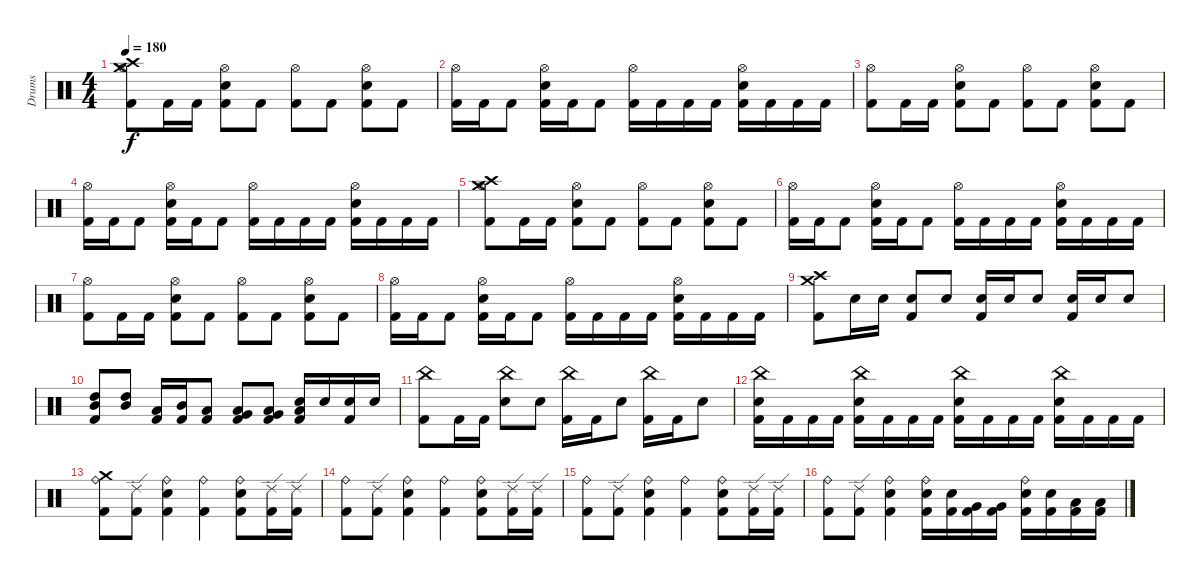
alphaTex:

\track ("Drums" "Drums") {instrument percussion}
\staff {score}
\articulation defaults
\ts (4 4)
\tempo 180
\clef neutral
\ks c
("Hi-Hat (open)" "Crash medium (hit)" "Crash high (hit)" "Kick (hit) 2").8{dy f} "Kick (hit) 2".16 "Kick (hit) 2".16 ("Hi-Hat (open)" "Snare (hit) 2" "Kick (hit) 2").8 "Kick (hit) 2".8 ("Hi-Hat (open)" "Kick (hit) 2").8 "Kick (hit) 2".8 ("Hi-Hat (open)" "Snare (hit) 2" "Kick (hit) 2").8 "Kick (hit) 2".8 |
("Hi-Hat (open)" "Kick (hit) 2").16 "Kick (hit) 2".16 "Kick (hit) 2".8 ("Hi-Hat (open)" "Snare (hit) 2" "Kick (hit) 2").16 "Kick (hit) 2".16 "Kick (hit) 2".8 ("Hi-Hat (open)" "Kick (hit) 2").16 "Kick (hit) 2".16 "Kick (hit) 2".16 "Kick (hit) 2".16 ("Hi-Hat (open)" "Snare (hit) 2" "Kick (hit) 2").16 "Kick (hit) 2".16 "Kick (hit) 2".16 "Kick (hit) 2".16 |
("Hi-Hat (open)" "Kick (hit) 2").8 "Kick (hit) 2".16 "Kick (hit) 2".16 ("Hi-Hat (open)" "Snare (hit) 2" "Kick (hit) 2").8 "Kick (hit) 2".8 ("Hi-Hat (open)" "Kick (hit) 2").8 "Kick (hit) 2".8 ("Hi-Hat (open)" "Snare (hit) 2" "Kick (hit) 2").8 "Kick (hit) 2".8 |
("Hi-Hat (open)" "Kick (hit) 2").16 "Kick (hit) 2".16 "Kick (hit) 2".8 ("Hi-Hat (open)" "Snare (hit) 2" "Kick (hit) 2").16 "Kick (hit) 2".16 "Kick (hit) 2".8 ("Hi-Hat (open)" "Kick (hit) 2").16 "Kick (hit) 2".16 "Kick (hit) 2".16 "Kick (hit) 2".16 ("Hi-Hat (open)" "Snare (hit) 2" "Kick (hit) 2").16 "Kick (hit) 2".16 "Kick (hit) 2".16 "Kick (hit) 2".16 |
("Hi-Hat (open)" "Crash medium (hit)" "Crash high (hit)" "Kick (hit) 2").8 "Kick (hit) 2".16 "Kick (hit) 2".16 ("Hi-Hat (open)" "Snare (hit) 2" "Kick (hit) 2").8 "Kick (hit) 2".8 ("Hi-Hat (open)" "Kick (hit) 2").8 "Kick (hit) 2".8 ("Hi-Hat (open)" "Snare (hit) 2" "Kick (hit) 2").8 "Kick (hit) 2".8 |
("Hi-Hat (open)" "Kick (hit) 2").16 "Kick (hit) 2".16 "Kick (hit) 2".8 ("Hi-Hat (open)" "Snare (hit) 2" "Kick (hit) 2").16 "Kick (hit) 2".16 "Kick (hit) 2".8 ("Hi-Hat (open)" "Kick (hit) 2").16 "Kick (hit) 2".16 "Kick (hit) 2".16 "Kick (hit) 2".16 ("Hi-Hat (open)" "Snare (hit) 2" "Kick (hit) 2").16 "Kick (hit) 2".16 "Kick (hit) 2".16 "Kick (hit) 2".16 |
("Hi-Hat (open)" "Kick (hit) 2").8 "Kick (hit) 2".16 "Kick (hit) 2".16 ("Hi-Hat (open)" "Snare (hit) 2" "Kick (hit) 2").8 "Kick (hit) 2".8 ("Hi-Hat (open)" "Kick (hit) 2").8 "Kick (hit) 2".8 ("Hi-Hat (open)" "Snare (hit) 2" "Kick (hit) 2").8 "Kick (hit) 2".8 |
("Hi-Hat (open)" "Kick (hit) 2").16 "Kick (hit) 2".16 "Kick (hit) 2".8 ("Hi-Hat (open)" "Snare (hit) 2" "Kick (hit) 2").16 "Kick (hit) 2".16 "Kick (hit) 2".8 ("Hi-Hat (open)" "Kick (hit) 2").16 "Kick (hit) 2".16 "Kick (hit) 2".16 "Kick (hit) 2".16 ("Hi-Hat (open)" "Snare (hit) 2" "Kick (hit) 2").16 "Kick (hit) 2".16 "Kick (hit) 2".16 "Kick (hit) 2".16 |
("Crash medium (hit)" "Crash high (hit)" "Kick (hit) 2").8 "Snare (hit) 2".16 "Snare (hit) 2".16 ("Snare (hit) 2" "Kick (hit) 2").8 "Snare (hit) 2".8 ("Snare (hit) 2" "Kick (hit) 2").16 "Snare (hit) 2".16 "Snare (hit) 2".8 ("Snare (hit) 2" "Kick (hit) 2").16 "Snare (hit) 2".16 "Snare (hit) 2".8 |
("High Tom (hit)" "Mid Tom (hit)" "Kick (hit) 2").8 ("High Tom (hit)" "Mid Tom (hit)").8 ("Low Tom (hit)" "Kick (hit) 2").16 ("Mid Tom (hit)" "Kick (hit) 2").16 ("Low Tom (hit)" "Kick (hit) 2").8 ("Low Tom (hit)" "Very Low Tom (hit)" "Kick (hit) 2").8 ("Very Low Tom (hit)" "Low Floor Tom (hit)" "Kick (hit) 2").8 ("Low Floor Tom (hit)" "Snare (hit) 2" "Kick (hit) 2").16 "Snare (hit) 2".16 ("Snare (hit) 2" "Kick (hit) 2").16 "Snare (hit) 2".16 |
("China (hit)" "Kick (hit) 2").8 "Kick (hit) 2".16 "Kick (hit) 2".16 ("China (hit)" "Snare (hit) 2").8 "Snare (hit) 2".8 ("China (hit)" "Kick (hit) 2").16 "Kick (hit) 2".16 "Snare (hit) 2".8 ("China (hit)" "Kick (hit) 2").16 "Kick (hit) 2".16 "Snare (hit) 2".8 |
("China (hit)" "Snare (hit) 2" "Kick (hit) 2").16 "Kick (hit) 2".16 "Kick (hit) 2".16 "Kick (hit) 2".16 ("China (hit)" "Snare (hit) 2" "Kick (hit) 2").16 "Kick (hit) 2".16 "Kick (hit) 2".16 "Kick (hit) 2".16 ("China (hit)" "Snare (hit) 2" "Kick (hit) 2").16 "Kick (hit) 2".16 "Kick (hit) 2".16 "Kick (hit) 2".16 ("China (hit)" "Snare (hit) 2" "Kick (hit) 2").16 "Kick (hit) 2".16 "Kick (hit) 2".16 "Kick (hit) 2".16 |
("Ride (bell)" "Crash medium (hit)" "Kick (hit) 2").8 ("Ride (edge) 2" "Kick (hit) 2").8 ("Ride (bell)" "Snare (hit) 2" "Kick (hit) 2").4 ("Ride (bell)" "Kick (hit) 2").4 ("Ride (bell)" "Snare (hit) 2" "Kick (hit) 2").8 ("Ride (edge) 2" "Kick (hit) 2").16 ("Ride (edge) 2" "Kick (hit) 2").16 |
("Ride (bell)" "Kick (hit) 2").8 ("Ride (edge) 2" "Kick (hit) 2").8 ("Ride (bell)" "Snare (hit) 2" "Kick (hit) 2").4 ("Ride (bell)" "Kick (hit) 2").4 ("Ride (bell)" "Snare (hit) 2" "Kick (hit) 2").8 ("Ride (edge) 2" "Kick (hit) 2").16 ("Ride (edge) 2" "Kick (hit) 2").16 |
("Ride (bell)" "Kick (hit) 2").8 ("Ride (edge) 2" "Kick (hit) 2").8 ("Ride (bell)" "Snare (hit) 2" "Kick (hit) 2").4 ("Ride (bell)" "Kick (hit) 2").4 ("Ride (bell)" "Snare (hit) 2" "Kick (hit) 2").8 ("Ride (edge) 2" "Kick (hit) 2").16 ("Ride (edge) 2" "Kick (hit) 2").16 |
("Ride (bell)" "Kick (hit) 2").8 ("Ride (edge) 2" "Kick (hit) 2").8 ("Ride (bell)" "Snare (hit) 2" "Kick (hit) 2").4 ("Ride (bell)" "Snare (hit) 2" "Kick (hit) 2").16 ("Snare (hit) 2" "Kick (hit) 2").16 ("Very Low Tom (hit)" "Kick (hit) 2").16 ("Very Low Tom (hit)" "Kick (hit) 2").16 ("Ride (bell)" "Snare (hit) 2" "Kick (hit) 2").16 ("Snare (hit) 2" "Kick (hit) 2").16 ("Low Floor Tom (hit)" "Kick (hit) 2").16 ("Low Floor Tom (hit)" "Kick (hit) 2").16
